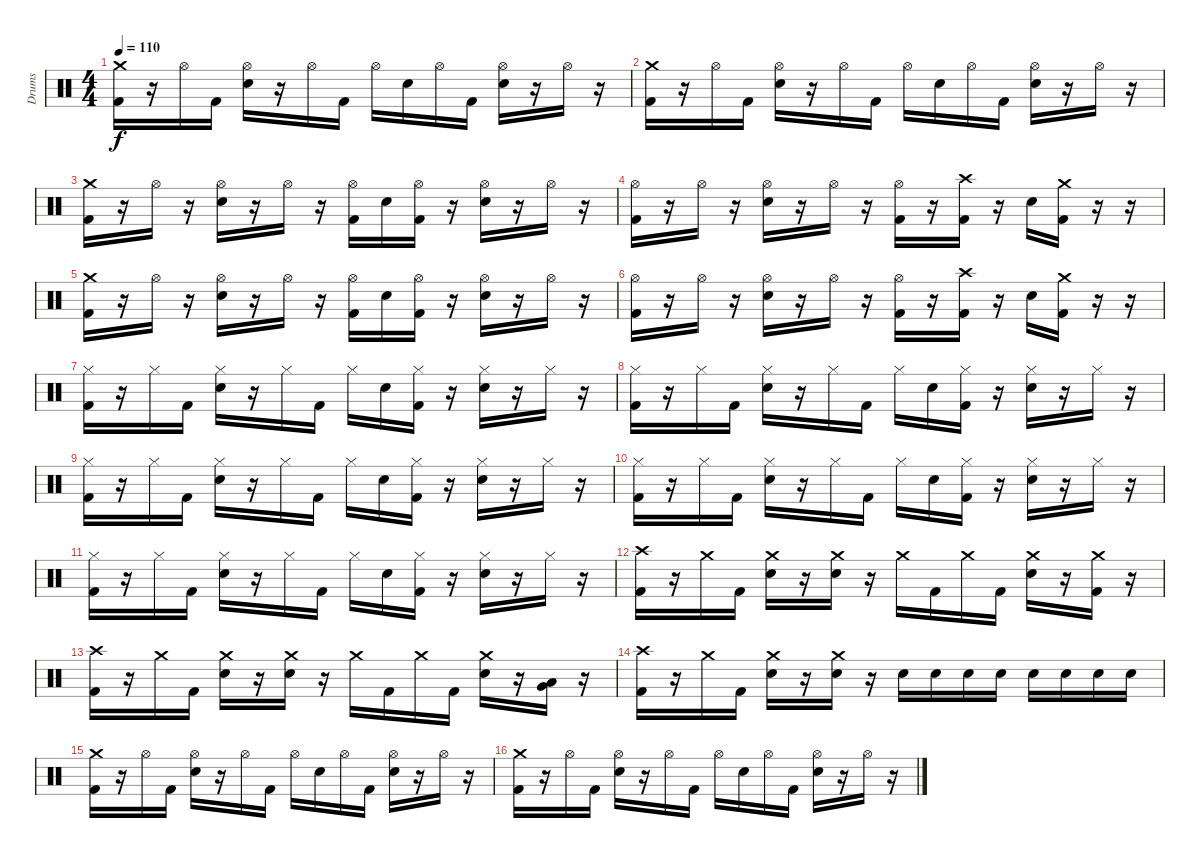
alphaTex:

\track ("Drums" "Drums") {instrument percussion}
\staff {score}
\articulation defaults
\ts (4 4)
\tempo 110
\clef neutral
\ks c
("Crash medium (hit)" "Kick (hit) 2").16{dy f} r.16 "Hi-Hat (open)".16 "Kick (hit) 2".16 ("Hi-Hat (open)" "Electric Snare (hit)").16 r.16 "Hi-Hat (open)".16 "Kick (hit) 2".16 "Hi-Hat (open)".16 "Electric Snare (hit)".16 "Hi-Hat (open)".16 "Kick (hit) 2".16 ("Hi-Hat (open)" "Electric Snare (hit)").16 r.16 "Hi-Hat (open)".16 r.16 |
("Crash medium (hit)" "Kick (hit) 2").16 r.16 "Hi-Hat (open)".16 "Kick (hit) 2".16 ("Hi-Hat (open)" "Electric Snare (hit)").16 r.16 "Hi-Hat (open)".16 "Kick (hit) 2".16 "Hi-Hat (open)".16 "Electric Snare (hit)".16 "Hi-Hat (open)".16 "Kick (hit) 2".16 ("Hi-Hat (open)" "Electric Snare (hit)").16 r.16 "Hi-Hat (open)".16 r.16 |
("Crash medium (hit)" "Kick (hit) 2").16 r.16 "Hi-Hat (open)".16 r.16 ("Hi-Hat (open)" "Electric Snare (hit)").16 r.16 "Hi-Hat (open)".16 r.16 ("Hi-Hat (open)" "Kick (hit) 2").16 "Electric Snare (hit)".16 ("Hi-Hat (open)" "Kick (hit) 2").16 r.16 ("Hi-Hat (open)" "Electric Snare (hit)").16 r.16 "Hi-Hat (open)".16 r.16 |
("Hi-Hat (open)" "Kick (hit) 2").16 r.16 "Hi-Hat (open)".16 r.16 ("Hi-Hat (open)" "Electric Snare (hit)").16 r.16 "Hi-Hat (open)".16 r.16 ("Hi-Hat (open)" "Kick (hit) 2").16 r.16 ("Crash high (hit)" "Kick (hit) 2").16 r.16 "Electric Snare (hit)".16 ("Crash medium (hit)" "Kick (hit) 2").16 r.16 r.16 |
("Crash medium (hit)" "Kick (hit) 2").16 r.16 "Hi-Hat (open)".16 r.16 ("Hi-Hat (open)" "Electric Snare (hit)").16 r.16 "Hi-Hat (open)".16 r.16 ("Hi-Hat (open)" "Kick (hit) 2").16 "Electric Snare (hit)".16 ("Hi-Hat (open)" "Kick (hit) 2").16 r.16 ("Hi-Hat (open)" "Electric Snare (hit)").16 r.16 "Hi-Hat (open)".16 r.16 |
("Hi-Hat (open)" "Kick (hit) 2").16 r.16 "Hi-Hat (open)".16 r.16 ("Hi-Hat (open)" "Electric Snare (hit)").16 r.16 "Hi-Hat (open)".16 r.16 ("Hi-Hat (open)" "Kick (hit) 2").16 r.16 ("Crash high (hit)" "Kick (hit) 2").16 r.16 "Electric Snare (hit)".16 ("Crash medium (hit)" "Kick (hit) 2").16 r.16 r.16 |
("Hi-Hat (closed)" "Kick (hit) 2").16 r.16 "Hi-Hat (closed)".16 "Kick (hit) 2".16 ("Hi-Hat (closed)" "Hand Clap (hit)").16 r.16 "Hi-Hat (closed)".16 "Kick (hit) 2".16 "Hi-Hat (closed)".16 "Hand Clap (hit)".16 ("Hi-Hat (closed)" "Kick (hit) 2").16 r.16 ("Hi-Hat (closed)" "Hand Clap (hit)").16 r.16 "Hi-Hat (closed)".16 r.16 |
("Hi-Hat (closed)" "Kick (hit) 2").16 r.16 "Hi-Hat (closed)".16 "Kick (hit) 2".16 ("Hi-Hat (closed)" "Hand Clap (hit)").16 r.16 "Hi-Hat (closed)".16 "Kick (hit) 2".16 "Hi-Hat (closed)".16 "Hand Clap (hit)".16 ("Hi-Hat (closed)" "Kick (hit) 2").16 r.16 ("Hi-Hat (closed)" "Hand Clap (hit)").16 r.16 "Hi-Hat (closed)".16 r.16 |
("Hi-Hat (closed)" "Kick (hit) 2").16 r.16 "Hi-Hat (closed)".16 "Kick (hit) 2".16 ("Hi-Hat (closed)" "Hand Clap (hit)").16 r.16 "Hi-Hat (closed)".16 "Kick (hit) 2".16 "Hi-Hat (closed)".16 "Hand Clap (hit)".16 ("Hi-Hat (closed)" "Kick (hit) 2").16 r.16 ("Hi-Hat (closed)" "Hand Clap (hit)").16 r.16 "Hi-Hat (closed)".16 r.16 |
("Hi-Hat (closed)" "Kick (hit) 2").16 r.16 "Hi-Hat (closed)".16 "Kick (hit) 2".16 ("Hi-Hat (closed)" "Hand Clap (hit)").16 r.16 "Hi-Hat (closed)".16 "Kick (hit) 2".16 "Hi-Hat (closed)".16 "Hand Clap (hit)".16 ("Hi-Hat (closed)" "Kick (hit) 2").16 r.16 ("Hi-Hat (closed)" "Hand Clap (hit)").16 r.16 "Hi-Hat (closed)".16 r.16 |
("Hi-Hat (closed)" "Kick (hit) 2").16 r.16 "Hi-Hat (closed)".16 "Kick (hit) 2".16 ("Hi-Hat (closed)" "Hand Clap (hit)").16 r.16 "Hi-Hat (closed)".16 "Kick (hit) 2".16 "Hi-Hat (closed)".16 "Hand Clap (hit)".16 ("Hi-Hat (closed)" "Kick (hit) 2").16 r.16 ("Hi-Hat (closed)" "Hand Clap (hit)").16 r.16 "Hi-Hat (closed)".16 r.16 |
("Crash high (hit)" "Kick (hit) 2").16 r.16 "Crash medium (hit)".16 "Kick (hit) 2".16 ("Crash medium (hit)" "Electric Snare (hit)").16 r.16 ("Crash medium (hit)" "Electric Snare (hit)").16 r.16 "Crash medium (hit)".16 "Kick (hit) 2".16 "Crash medium (hit)".16 "Kick (hit) 2".16 ("Crash medium (hit)" "Electric Snare (hit)").16 r.16 ("Crash medium (hit)" "Kick (hit) 2").16 r.16 |
("Crash high (hit)" "Kick (hit) 2").16 r.16 "Crash medium (hit)".16 "Kick (hit) 2".16 ("Crash medium (hit)" "Electric Snare (hit)").16 r.16 ("Crash medium (hit)" "Electric Snare (hit)").16 r.16 "Crash medium (hit)".16 "Kick (hit) 2".16 "Crash medium (hit)".16 "Kick (hit) 2".16 ("Crash medium (hit)" "Electric Snare (hit)").16 r.16 ("Low Tom (hit)" "Very Low Tom (hit)").16 r.16 |
("Crash high (hit)" "Kick (hit) 2").16 r.16 "Crash medium (hit)".16 "Kick (hit) 2".16 ("Crash medium (hit)" "Electric Snare (hit)").16 r.16 ("Crash medium (hit)" "Electric Snare (hit)").16 r.16 "Electric Snare (hit)".16 "Electric Snare (hit)".16 "Electric Snare (hit)".16 "Electric Snare (hit)".16 "Electric Snare (hit)".16 "Electric Snare (hit)".16 "Electric Snare (hit)".16 "Electric Snare (hit)".16 |
("Crash medium (hit)" "Kick (hit) 2").16 r.16 "Hi-Hat (open)".16 "Kick (hit) 2".16 ("Hi-Hat (open)" "Electric Snare (hit)").16 r.16 "Hi-Hat (open)".16 "Kick (hit) 2".16 "Hi-Hat (open)".16 "Electric Snare (hit)".16 "Hi-Hat (open)".16 "Kick (hit) 2".16 ("Hi-Hat (open)" "Electric Snare (hit)").16 r.16 "Hi-Hat (open)".16 r.16 |
("Crash medium (hit)" "Kick (hit) 2").16 r.16 "Hi-Hat (open)".16 "Kick (hit) 2".16 ("Hi-Hat (open)" "Electric Snare (hit)").16 r.16 "Hi-Hat (open)".16 "Kick (hit) 2".16 "Hi-Hat (open)".16 "Electric Snare (hit)".16 "Hi-Hat (open)".16 "Kick (hit) 2".16 ("Hi-Hat (open)" "Electric Snare (hit)").16 r.16 "Hi-Hat (open)".16 r.16
